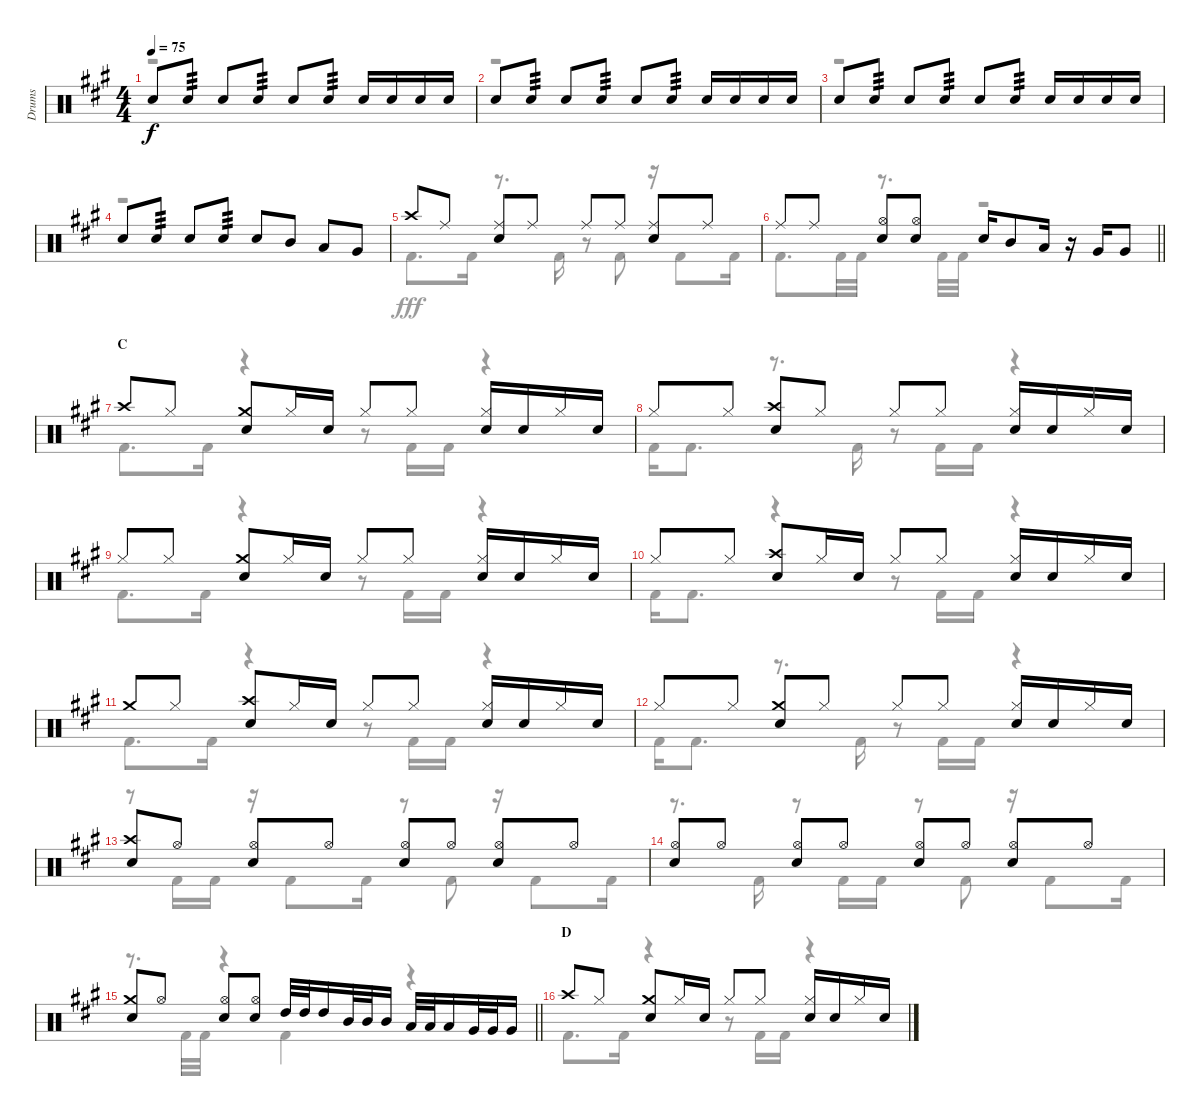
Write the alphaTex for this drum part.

\track ("Drums" "Drums") {instrument percussion}
\staff {score}
\articulation defaults
\voice
\ts (4 4)
\tempo 75
\clef neutral
\ks a "Snare (hit) 2".8{dy f} "Snare (hit) 2".8{tp 3} "Snare (hit) 2".8 "Snare (hit) 2".8{tp 3} "Snare (hit) 2".8 "Snare (hit) 2".8{tp 3} "Snare (hit) 2".16 "Snare (hit) 2".16 "Snare (hit) 2".16 "Snare (hit) 2".16
|
"Snare (hit) 2".8 "Snare (hit) 2".8{tp 3} "Snare (hit) 2".8 "Snare (hit) 2".8{tp 3} "Snare (hit) 2".8 "Snare (hit) 2".8{tp 3} "Snare (hit) 2".16 "Snare (hit) 2".16 "Snare (hit) 2".16 "Snare (hit) 2".16 |
"Snare (hit) 2".8 "Snare (hit) 2".8{tp 3} "Snare (hit) 2".8 "Snare (hit) 2".8{tp 3} "Snare (hit) 2".8 "Snare (hit) 2".8{tp 3} "Snare (hit) 2".16 "Snare (hit) 2".16 "Snare (hit) 2".16 "Snare (hit) 2".16 |
"Snare (hit) 2".8 "Snare (hit) 2".8{tp 3} "Snare (hit) 2".8 "Snare (hit) 2".8{tp 3} "Snare (hit) 2".8 "Mid Tom (hit)".8 "Low Tom (hit)".8 "Very Low Tom (hit)".8 |
"Crash high (hit)".8 "Ride (middle)".8 ("Ride (middle)" "Snare (hit) 2").8 "Ride (middle)".8 "Ride (middle)".8 "Ride (middle)".8 ("Ride (middle)" "Snare (hit) 2").8 "Ride (middle)".8 |
\barLineRight lightlight "Ride (middle)".8 "Ride (middle)".8
("Hi-Hat (open)" "Snare (hit) 2").8 ("Hi-Hat (open)" "Snare (hit) 2").8 "Snare (hit) 2".16 "Mid Tom (hit)".8 "Low Tom (hit)".16 r.16 "Very Low Tom (hit)".16 "Very Low Tom (hit)".8 |
\section ("" "C")
"Crash high (hit)".8 "Hi-Hat (closed)".8 ("Crash medium (hit)" "Snare (hit) 2").8 "Hi-Hat (closed)".16 "Snare (hit) 2".16 "Hi-Hat (closed)".8 "Hi-Hat (closed)".8 ("Hi-Hat (closed)" "Snare (hit) 2").16 "Snare (hit) 2".16 "Hi-Hat (closed)".16 "Snare (hit) 2".16 |
"Hi-Hat (closed)".8 "Hi-Hat (closed)".8 ("Crash high (hit)" "Snare (hit) 2").8 "Hi-Hat (closed)".8 "Hi-Hat (closed)".8 "Hi-Hat (closed)".8 ("Hi-Hat (closed)" "Snare (hit) 2").16 "Snare (hit) 2".16 "Hi-Hat (closed)".16 "Snare (hit) 2".16 |
"Hi-Hat (closed)".8 "Hi-Hat (closed)".8 ("Crash medium (hit)" "Snare (hit) 2").8 "Hi-Hat (closed)".16 "Snare (hit) 2".16 "Hi-Hat (closed)".8 "Hi-Hat (closed)".8 ("Hi-Hat (closed)" "Snare (hit) 2").16 "Snare (hit) 2".16 "Hi-Hat (closed)".16 "Snare (hit) 2".16 |
"Hi-Hat (closed)".8 "Hi-Hat (closed)".8 ("Crash high (hit)" "Snare (hit) 2").8 "Hi-Hat (closed)".16 "Snare (hit) 2".16 "Hi-Hat (closed)".8 "Hi-Hat (closed)".8 ("Hi-Hat (closed)" "Snare (hit) 2").16 "Snare (hit) 2".16 "Hi-Hat (closed)".16 "Snare (hit) 2".16 |
"Crash medium (hit)".8 "Hi-Hat (closed)".8 ("Crash high (hit)" "Snare (hit) 2").8 "Hi-Hat (closed)".16 "Snare (hit) 2".16 "Hi-Hat (closed)".8 "Hi-Hat (closed)".8 ("Hi-Hat (closed)" "Snare (hit) 2").16 "Snare (hit) 2".16 "Hi-Hat (closed)".16 "Snare (hit) 2".16 |
"Hi-Hat (closed)".8 "Hi-Hat (closed)".8 ("Crash medium (hit)" "Snare (hit) 2").8 "Hi-Hat (closed)".8 "Hi-Hat (closed)".8 "Hi-Hat (closed)".8 ("Hi-Hat (closed)" "Snare (hit) 2").16 "Snare (hit) 2".16 "Hi-Hat (closed)".16 "Snare (hit) 2".16 |
("Crash high (hit)" "Snare (hit) 2").8 "Hi-Hat (open)".8 ("Hi-Hat (open)" "Snare (hit) 2").8 "Hi-Hat (open)".8 ("Hi-Hat (open)" "Snare (hit) 2").8 "Hi-Hat (open)".8 ("Hi-Hat (open)" "Snare (hit) 2").8 "Hi-Hat (open)".8 |
("Hi-Hat (open)" "Snare (hit) 2").8 "Hi-Hat (open)".8 ("Hi-Hat (open)" "Snare (hit) 2").8 "Hi-Hat (open)".8 ("Hi-Hat (open)" "Snare (hit) 2").8 "Hi-Hat (open)".8 ("Hi-Hat (open)" "Snare (hit) 2").8 "Hi-Hat (open)".8 |
\barLineRight lightlight
("Crash medium (hit)" "Snare (hit) 2").8 "Hi-Hat (open)".8 ("Hi-Hat (open)" "Snare (hit) 2").8 ("Hi-Hat (open)" "Snare (hit) 2").8 "High Tom (hit)".32 "High Tom (hit)".32 "High Tom (hit)".16 "Mid Tom (hit)".32 "Mid Tom (hit)".32 "Mid Tom (hit)".16 "Low Tom (hit)".32 "Low Tom (hit)".32 "Low Tom (hit)".16 "Very Low Tom (hit)".32 "Very Low Tom (hit)".32 "Very Low Tom (hit)".16 |
\section ("" "D")
"Crash high (hit)".8 "Hi-Hat (closed)".8 ("Crash medium (hit)" "Snare (hit) 2").8 "Hi-Hat (closed)".16 "Snare (hit) 2".16 "Hi-Hat (closed)".8 "Hi-Hat (closed)".8 ("Hi-Hat (closed)" "Snare (hit) 2").16 "Snare (hit) 2".16 "Hi-Hat (closed)".16 "Snare (hit) 2".16
\voice
\clef neutral
\ottava regular
\simile none
\ks a
r.1{dy fff} |
r.1 |
r.1 |
r.1 |
"Kick (hit) 2".8{d} "Kick (hit) 2".16 r.8{d} "Kick (hit) 2".16 r.8 "Kick (hit) 2".8 r.16 "Kick (hit) 2".8 "Kick (hit) 2".16 |
\barLineRight lightlight "Kick (hit) 2".8{d} "Kick (hit) 2".32 "Kick (hit) 2".32
r.8{d} "Kick (hit) 2".32 "Kick (hit) 2".32 r.2 |
"Kick (hit) 2".8{d} "Kick (hit) 2".16 r.4 r.8 "Kick (hit) 2".16 "Kick (hit) 2".16 r.4 |
"Kick (hit) 2".16 "Kick (hit) 2".8{d} r.8{d} "Kick (hit) 2".16 r.8 "Kick (hit) 2".16 "Kick (hit) 2".16 r.4 |
"Kick (hit) 2".8{d} "Kick (hit) 2".16 r.4 r.8 "Kick (hit) 2".16 "Kick (hit) 2".16 r.4 |
"Kick (hit) 2".16 "Kick (hit) 2".8{d} r.4 r.8 "Kick (hit) 2".16 "Kick (hit) 2".16 r.4 |
"Kick (hit) 2".8{d} "Kick (hit) 2".16 r.4 r.8 "Kick (hit) 2".16 "Kick (hit) 2".16 r.4 |
"Kick (hit) 2".16 "Kick (hit) 2".8{d} r.8{d} "Kick (hit) 2".16 r.8 "Kick (hit) 2".16 "Kick (hit) 2".16 r.4 |
r.8 "Kick (hit) 2".16 "Kick (hit) 2".16 r.16 "Kick (hit) 2".8 "Kick (hit) 2".16 r.8 "Kick (hit) 2".8 r.16 "Kick (hit) 2".8 "Kick (hit) 2".16 |
r.8{d} "Kick (hit) 2".16 r.8 "Kick (hit) 2".16 "Kick (hit) 2".16 r.8 "Kick (hit) 2".8 r.16 "Kick (hit) 2".8 "Kick (hit) 2".16 |
\barLineRight lightlight
r.8{d} "Kick (hit) 2".32 "Kick (hit) 2".32 r.4 "Kick (hit) 2".4 r.4 |
"Kick (hit) 2".8{d} "Kick (hit) 2".16 r.4 r.8 "Kick (hit) 2".16 "Kick (hit) 2".16 r.4
